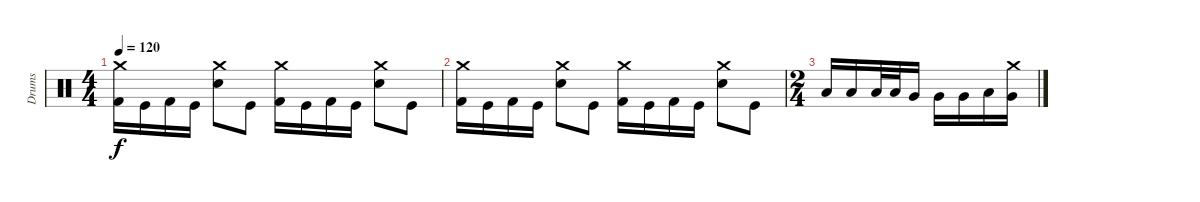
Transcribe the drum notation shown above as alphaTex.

\track ("Drums" "Drums") {instrument percussion}
\staff {score}
\articulation defaults
\ts (4 4)
\tempo 120
\clef neutral
\ks c
("Crash medium (hit)" "Kick (hit) 2").16{dy f} "Kick (hit)".16 "Kick (hit) 2".16 "Kick (hit)".16 ("Crash medium (hit)" "Snare (hit) 2").8 "Kick (hit)".8 ("Crash medium (hit)" "Kick (hit) 2").16 "Kick (hit)".16 "Kick (hit) 2".16 "Kick (hit)".16 ("Crash medium (hit)" "Snare (hit) 2").8 "Kick (hit)".8 |
("Crash medium (hit)" "Kick (hit) 2").16 "Kick (hit)".16 "Kick (hit) 2".16 "Kick (hit)".16 ("Crash medium (hit)" "Snare (hit) 2").8 "Kick (hit)".8 ("Crash medium (hit)" "Kick (hit) 2").16 "Kick (hit)".16 "Kick (hit) 2".16 "Kick (hit)".16 ("Crash medium (hit)" "Snare (hit) 2").8 "Kick (hit)".8 |
\ts (2 4)
"Low Tom (hit)".16 "Low Tom (hit)".16 "Low Tom (hit)".32 "Low Tom (hit)".32 "Very Low Tom (hit)".16 "Very Low Tom (hit)".16 "Very Low Tom (hit)".16 "Low Floor Tom (hit)".16 ("Crash medium (hit)" "Very Low Tom (hit)").16
